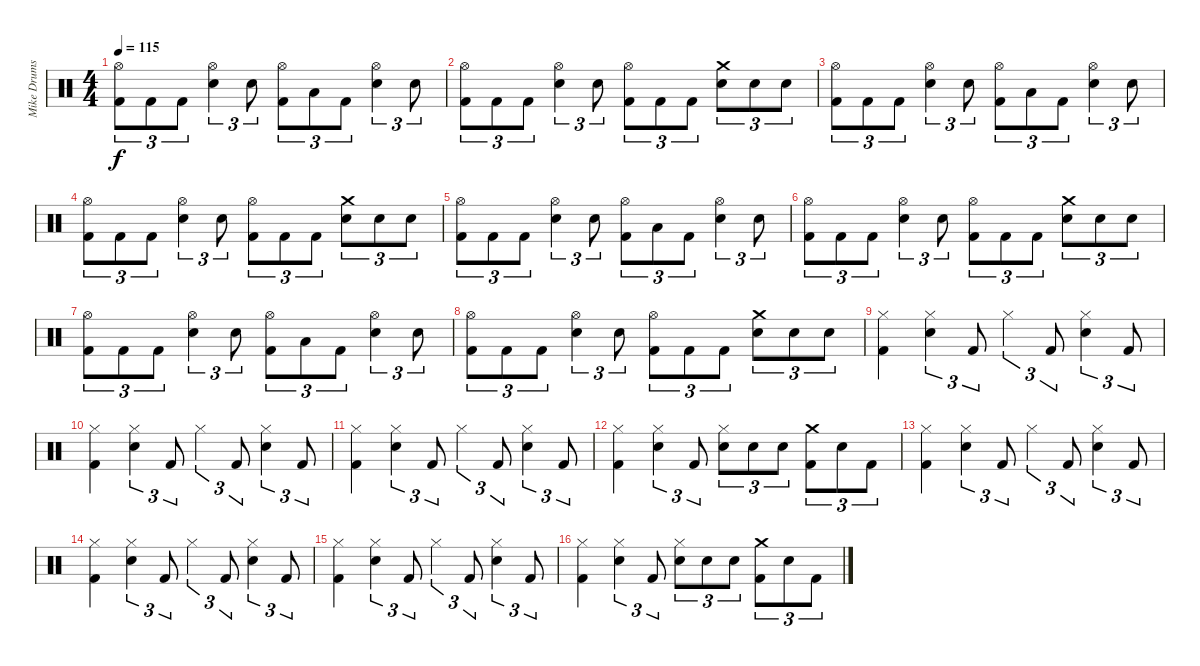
\track ("Mike Drums" "Mike Drums") {instrument percussion}
\staff {score}
\articulation defaults
\ts (4 4)
\tempo 115
\clef neutral
\ks c
("Hi-Hat (open)" "Kick (hit) 2").8{tu (3 2) dy f} "Kick (hit) 2".8{tu (3 2)} "Kick (hit) 2".8{tu (3 2)} ("Hi-Hat (open)" "Electric Snare (hit)").4{tu (3 2)} "Electric Snare (hit)".8{tu (3 2)} ("Hi-Hat (open)" "Kick (hit) 2").8{tu (3 2)} "Low Tom (hit)".8{tu (3 2)} "Kick (hit) 2".8{tu (3 2)} ("Hi-Hat (open)" "Electric Snare (hit)").4{tu (3 2)} "Electric Snare (hit)".8{tu (3 2)} |
("Hi-Hat (open)" "Kick (hit) 2").8{tu (3 2)} "Kick (hit) 2".8{tu (3 2)} "Kick (hit) 2".8{tu (3 2)} ("Hi-Hat (open)" "Electric Snare (hit)").4{tu (3 2)} "Electric Snare (hit)".8{tu (3 2)} ("Hi-Hat (open)" "Kick (hit) 2").8{tu (3 2)} "Kick (hit) 2".8{tu (3 2)} "Kick (hit) 2".8{tu (3 2)} ("Crash medium (hit)" "Electric Snare (hit)").8{tu (3 2)} "Electric Snare (hit)".8{tu (3 2)} "Electric Snare (hit)".8{tu (3 2)} |
("Hi-Hat (open)" "Kick (hit) 2").8{tu (3 2)} "Kick (hit) 2".8{tu (3 2)} "Kick (hit) 2".8{tu (3 2)} ("Hi-Hat (open)" "Electric Snare (hit)").4{tu (3 2)} "Electric Snare (hit)".8{tu (3 2)} ("Hi-Hat (open)" "Kick (hit) 2").8{tu (3 2)} "Low Tom (hit)".8{tu (3 2)} "Kick (hit) 2".8{tu (3 2)} ("Hi-Hat (open)" "Electric Snare (hit)").4{tu (3 2)} "Electric Snare (hit)".8{tu (3 2)} |
("Hi-Hat (open)" "Kick (hit) 2").8{tu (3 2)} "Kick (hit) 2".8{tu (3 2)} "Kick (hit) 2".8{tu (3 2)} ("Hi-Hat (open)" "Electric Snare (hit)").4{tu (3 2)} "Electric Snare (hit)".8{tu (3 2)} ("Hi-Hat (open)" "Kick (hit) 2").8{tu (3 2)} "Kick (hit) 2".8{tu (3 2)} "Kick (hit) 2".8{tu (3 2)} ("Crash medium (hit)" "Electric Snare (hit)").8{tu (3 2)} "Electric Snare (hit)".8{tu (3 2)} "Electric Snare (hit)".8{tu (3 2)} |
("Hi-Hat (open)" "Kick (hit) 2").8{tu (3 2)} "Kick (hit) 2".8{tu (3 2)} "Kick (hit) 2".8{tu (3 2)} ("Hi-Hat (open)" "Electric Snare (hit)").4{tu (3 2)} "Electric Snare (hit)".8{tu (3 2)} ("Hi-Hat (open)" "Kick (hit) 2").8{tu (3 2)} "Low Tom (hit)".8{tu (3 2)} "Kick (hit) 2".8{tu (3 2)} ("Hi-Hat (open)" "Electric Snare (hit)").4{tu (3 2)} "Electric Snare (hit)".8{tu (3 2)} |
("Hi-Hat (open)" "Kick (hit) 2").8{tu (3 2)} "Kick (hit) 2".8{tu (3 2)} "Kick (hit) 2".8{tu (3 2)} ("Hi-Hat (open)" "Electric Snare (hit)").4{tu (3 2)} "Electric Snare (hit)".8{tu (3 2)} ("Hi-Hat (open)" "Kick (hit) 2").8{tu (3 2)} "Kick (hit) 2".8{tu (3 2)} "Kick (hit) 2".8{tu (3 2)} ("Crash medium (hit)" "Electric Snare (hit)").8{tu (3 2)} "Electric Snare (hit)".8{tu (3 2)} "Electric Snare (hit)".8{tu (3 2)} |
("Hi-Hat (open)" "Kick (hit) 2").8{tu (3 2)} "Kick (hit) 2".8{tu (3 2)} "Kick (hit) 2".8{tu (3 2)} ("Hi-Hat (open)" "Electric Snare (hit)").4{tu (3 2)} "Electric Snare (hit)".8{tu (3 2)} ("Hi-Hat (open)" "Kick (hit) 2").8{tu (3 2)} "Low Tom (hit)".8{tu (3 2)} "Kick (hit) 2".8{tu (3 2)} ("Hi-Hat (open)" "Electric Snare (hit)").4{tu (3 2)} "Electric Snare (hit)".8{tu (3 2)} |
("Hi-Hat (open)" "Kick (hit) 2").8{tu (3 2)} "Kick (hit) 2".8{tu (3 2)} "Kick (hit) 2".8{tu (3 2)} ("Hi-Hat (open)" "Electric Snare (hit)").4{tu (3 2)} "Electric Snare (hit)".8{tu (3 2)} ("Hi-Hat (open)" "Kick (hit) 2").8{tu (3 2)} "Kick (hit) 2".8{tu (3 2)} "Kick (hit) 2".8{tu (3 2)} ("Crash medium (hit)" "Electric Snare (hit)").8{tu (3 2)} "Electric Snare (hit)".8{tu (3 2)} "Electric Snare (hit)".8{tu (3 2)} |
("Hi-Hat (closed)" "Kick (hit) 2").4 ("Hi-Hat (closed)" "Electric Snare (hit)").4{tu (3 2)} "Kick (hit) 2".8{tu (3 2)} "Hi-Hat (closed)".4{tu (3 2)} "Kick (hit) 2".8{tu (3 2)} ("Hi-Hat (closed)" "Electric Snare (hit)").4{tu (3 2)} "Kick (hit) 2".8{tu (3 2)} |
("Hi-Hat (closed)" "Kick (hit) 2").4 ("Hi-Hat (closed)" "Electric Snare (hit)").4{tu (3 2)} "Kick (hit) 2".8{tu (3 2)} "Hi-Hat (closed)".4{tu (3 2)} "Kick (hit) 2".8{tu (3 2)} ("Hi-Hat (closed)" "Electric Snare (hit)").4{tu (3 2)} "Kick (hit) 2".8{tu (3 2)} |
("Hi-Hat (closed)" "Kick (hit) 2").4 ("Hi-Hat (closed)" "Electric Snare (hit)").4{tu (3 2)} "Kick (hit) 2".8{tu (3 2)} "Hi-Hat (closed)".4{tu (3 2)} "Kick (hit) 2".8{tu (3 2)} ("Hi-Hat (closed)" "Electric Snare (hit)").4{tu (3 2)} "Kick (hit) 2".8{tu (3 2)} |
("Hi-Hat (closed)" "Kick (hit) 2").4 ("Hi-Hat (closed)" "Electric Snare (hit)").4{tu (3 2)} "Kick (hit) 2".8{tu (3 2)} ("Hi-Hat (closed)" "Electric Snare (hit)").8{tu (3 2)} "Electric Snare (hit)".8{tu (3 2)} "Electric Snare (hit)".8{tu (3 2)} ("Crash medium (hit)" "Kick (hit) 2").8{tu (3 2)} "Electric Snare (hit)".8{tu (3 2)} "Kick (hit) 2".8{tu (3 2)} |
("Hi-Hat (closed)" "Kick (hit) 2").4 ("Hi-Hat (closed)" "Electric Snare (hit)").4{tu (3 2)} "Kick (hit) 2".8{tu (3 2)} "Hi-Hat (closed)".4{tu (3 2)} "Kick (hit) 2".8{tu (3 2)} ("Hi-Hat (closed)" "Electric Snare (hit)").4{tu (3 2)} "Kick (hit) 2".8{tu (3 2)} |
("Hi-Hat (closed)" "Kick (hit) 2").4 ("Hi-Hat (closed)" "Electric Snare (hit)").4{tu (3 2)} "Kick (hit) 2".8{tu (3 2)} "Hi-Hat (closed)".4{tu (3 2)} "Kick (hit) 2".8{tu (3 2)} ("Hi-Hat (closed)" "Electric Snare (hit)").4{tu (3 2)} "Kick (hit) 2".8{tu (3 2)} |
("Hi-Hat (closed)" "Kick (hit) 2").4 ("Hi-Hat (closed)" "Electric Snare (hit)").4{tu (3 2)} "Kick (hit) 2".8{tu (3 2)} "Hi-Hat (closed)".4{tu (3 2)} "Kick (hit) 2".8{tu (3 2)} ("Hi-Hat (closed)" "Electric Snare (hit)").4{tu (3 2)} "Kick (hit) 2".8{tu (3 2)} |
("Hi-Hat (closed)" "Kick (hit) 2").4 ("Hi-Hat (closed)" "Electric Snare (hit)").4{tu (3 2)} "Kick (hit) 2".8{tu (3 2)} ("Hi-Hat (closed)" "Electric Snare (hit)").8{tu (3 2)} "Electric Snare (hit)".8{tu (3 2)} "Electric Snare (hit)".8{tu (3 2)} ("Crash medium (hit)" "Kick (hit) 2").8{tu (3 2)} "Electric Snare (hit)".8{tu (3 2)} "Kick (hit) 2".8{tu (3 2)}
